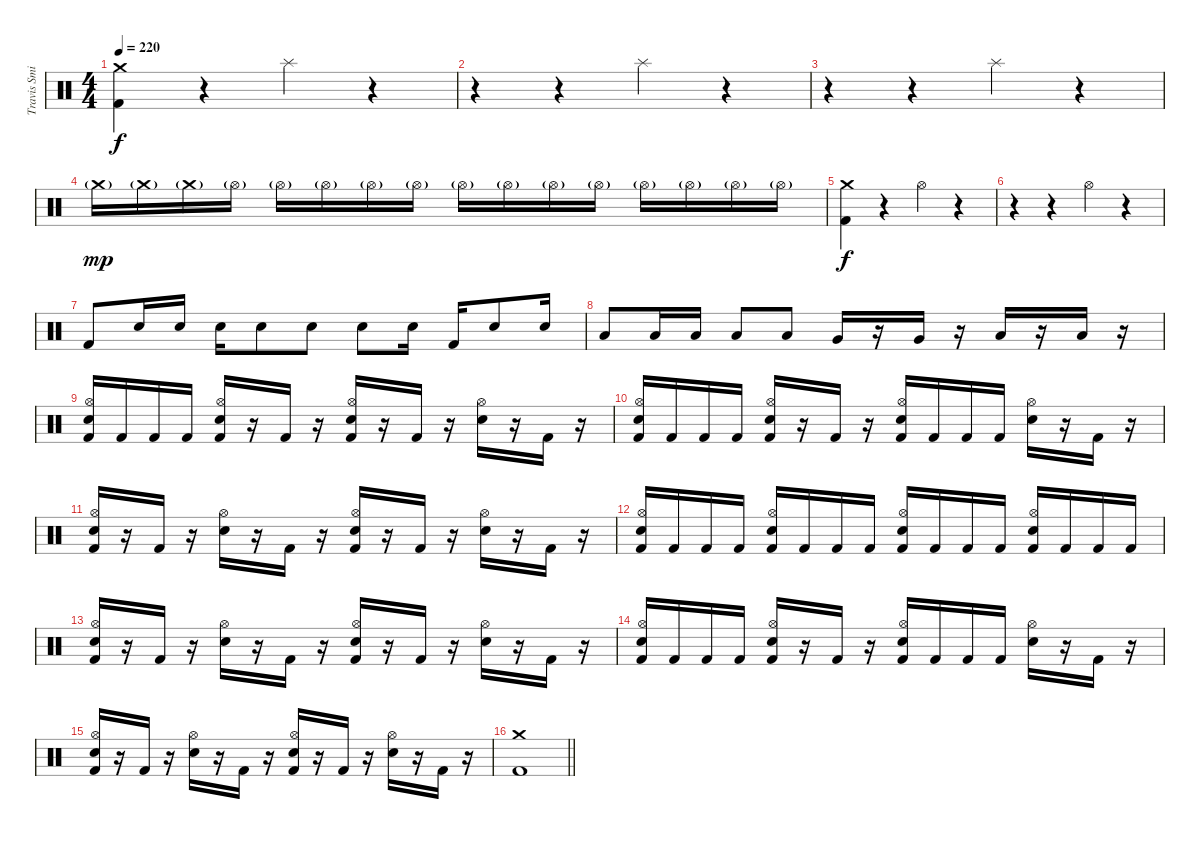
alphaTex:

\track ("Travis Smith" "Travis Smi") {instrument percussion}
\staff {score}
\articulation defaults
\ts (4 4)
\tempo 220
\clef neutral
\ks c
("Crash medium (hit)" "Kick (hit) 2").4{dy f} r.4 "Splash (hit)".4 r.4 |
r.4 r.4 "Splash (hit)".4 r.4 |
r.4 r.4 "Splash (hit)".4 r.4 |
"Crash medium (hit)"{g}.16{dy mp} "Crash medium (hit)"{g}.16 "Crash medium (hit)"{g}.16 "Hi-Hat (open)"{g}.16 "Hi-Hat (open)"{g}.16 "Hi-Hat (open)"{g}.16 "Hi-Hat (open)"{g}.16 "Hi-Hat (open)"{g}.16 "Hi-Hat (open)"{g}.16 "Hi-Hat (open)"{g}.16 "Hi-Hat (open)"{g}.16 "Hi-Hat (open)"{g}.16 "Hi-Hat (open)"{g}.16 "Hi-Hat (open)"{g}.16 "Hi-Hat (open)"{g}.16 "Hi-Hat (open)"{g}.16 |
("Crash medium (hit)" "Kick (hit) 2").4{dy f} r.4 "Hi-Hat (open)".4 r.4 |
r.4 r.4 "Hi-Hat (open)".4 r.4 |
"Kick (hit) 2".8 "Electric Snare (hit)".16 "Electric Snare (hit)".16 "Electric Snare (hit)".16 "Electric Snare (hit)".8 "Electric Snare (hit)".8 "Electric Snare (hit)".8 "Electric Snare (hit)".16 "Kick (hit) 2".16 "Electric Snare (hit)".8 "Electric Snare (hit)".16 |
"Low Tom (hit)".8 "Low Tom (hit)".16 "Low Tom (hit)".16 "Low Tom (hit)".8 "Low Tom (hit)".8 "Very Low Tom (hit)".16 r.16 "Very Low Tom (hit)".16 r.16 "Low Floor Tom (hit)".16 r.16 "Low Floor Tom (hit)".16 r.16 |
("Hi-Hat (open)" "Electric Snare (hit)" "Kick (hit) 2").16 "Kick (hit) 2".16 "Kick (hit) 2".16 "Kick (hit) 2".16 ("Hi-Hat (open)" "Electric Snare (hit)" "Kick (hit) 2").16 r.16 "Kick (hit) 2".16 r.16 ("Hi-Hat (open)" "Electric Snare (hit)" "Kick (hit) 2").16 r.16 "Kick (hit) 2".16 r.16 ("Hi-Hat (open)" "Electric Snare (hit)").16 r.16 "Kick (hit) 2".16 r.16 |
("Hi-Hat (open)" "Electric Snare (hit)" "Kick (hit) 2").16 "Kick (hit) 2".16 "Kick (hit) 2".16 "Kick (hit) 2".16 ("Hi-Hat (open)" "Electric Snare (hit)" "Kick (hit) 2").16 r.16 "Kick (hit) 2".16 r.16 ("Hi-Hat (open)" "Electric Snare (hit)" "Kick (hit) 2").16 "Kick (hit) 2".16 "Kick (hit) 2".16 "Kick (hit) 2".16 ("Hi-Hat (open)" "Electric Snare (hit)").16 r.16 "Kick (hit) 2".16 r.16 |
("Hi-Hat (open)" "Electric Snare (hit)" "Kick (hit) 2").16 r.16 "Kick (hit) 2".16 r.16 ("Hi-Hat (open)" "Electric Snare (hit)").16 r.16 "Kick (hit) 2".16 r.16 ("Hi-Hat (open)" "Electric Snare (hit)" "Kick (hit) 2").16 r.16 "Kick (hit) 2".16 r.16 ("Hi-Hat (open)" "Electric Snare (hit)").16 r.16 "Kick (hit) 2".16 r.16 |
("Hi-Hat (open)" "Electric Snare (hit)" "Kick (hit) 2").16 "Kick (hit) 2".16 "Kick (hit) 2".16 "Kick (hit) 2".16 ("Hi-Hat (open)" "Electric Snare (hit)" "Kick (hit) 2").16 "Kick (hit) 2".16 "Kick (hit) 2".16 "Kick (hit) 2".16 ("Hi-Hat (open)" "Electric Snare (hit)" "Kick (hit) 2").16 "Kick (hit) 2".16 "Kick (hit) 2".16 "Kick (hit) 2".16 ("Hi-Hat (open)" "Electric Snare (hit)" "Kick (hit) 2").16 "Kick (hit) 2".16 "Kick (hit) 2".16 "Kick (hit) 2".16 |
("Hi-Hat (open)" "Electric Snare (hit)" "Kick (hit) 2").16 r.16 "Kick (hit) 2".16 r.16 ("Hi-Hat (open)" "Electric Snare (hit)").16 r.16 "Kick (hit) 2".16 r.16 ("Hi-Hat (open)" "Electric Snare (hit)" "Kick (hit) 2").16 r.16 "Kick (hit) 2".16 r.16 ("Hi-Hat (open)" "Electric Snare (hit)").16 r.16 "Kick (hit) 2".16 r.16 |
("Hi-Hat (open)" "Electric Snare (hit)" "Kick (hit) 2").16 "Kick (hit) 2".16 "Kick (hit) 2".16 "Kick (hit) 2".16 ("Hi-Hat (open)" "Electric Snare (hit)" "Kick (hit) 2").16 r.16 "Kick (hit) 2".16 r.16 ("Hi-Hat (open)" "Electric Snare (hit)" "Kick (hit) 2").16 "Kick (hit) 2".16 "Kick (hit) 2".16 "Kick (hit) 2".16 ("Hi-Hat (open)" "Electric Snare (hit)").16 r.16 "Kick (hit) 2".16 r.16 |
("Hi-Hat (open)" "Electric Snare (hit)" "Kick (hit) 2").16 r.16 "Kick (hit) 2".16 r.16 ("Hi-Hat (open)" "Electric Snare (hit)").16 r.16 "Kick (hit) 2".16 r.16 ("Hi-Hat (open)" "Electric Snare (hit)" "Kick (hit) 2").16 r.16 "Kick (hit) 2".16 r.16 ("Hi-Hat (open)" "Electric Snare (hit)").16 r.16 "Kick (hit) 2".16 r.16 |
\barLineRight lightlight
("Crash medium (hit)" "Kick (hit) 2").1
